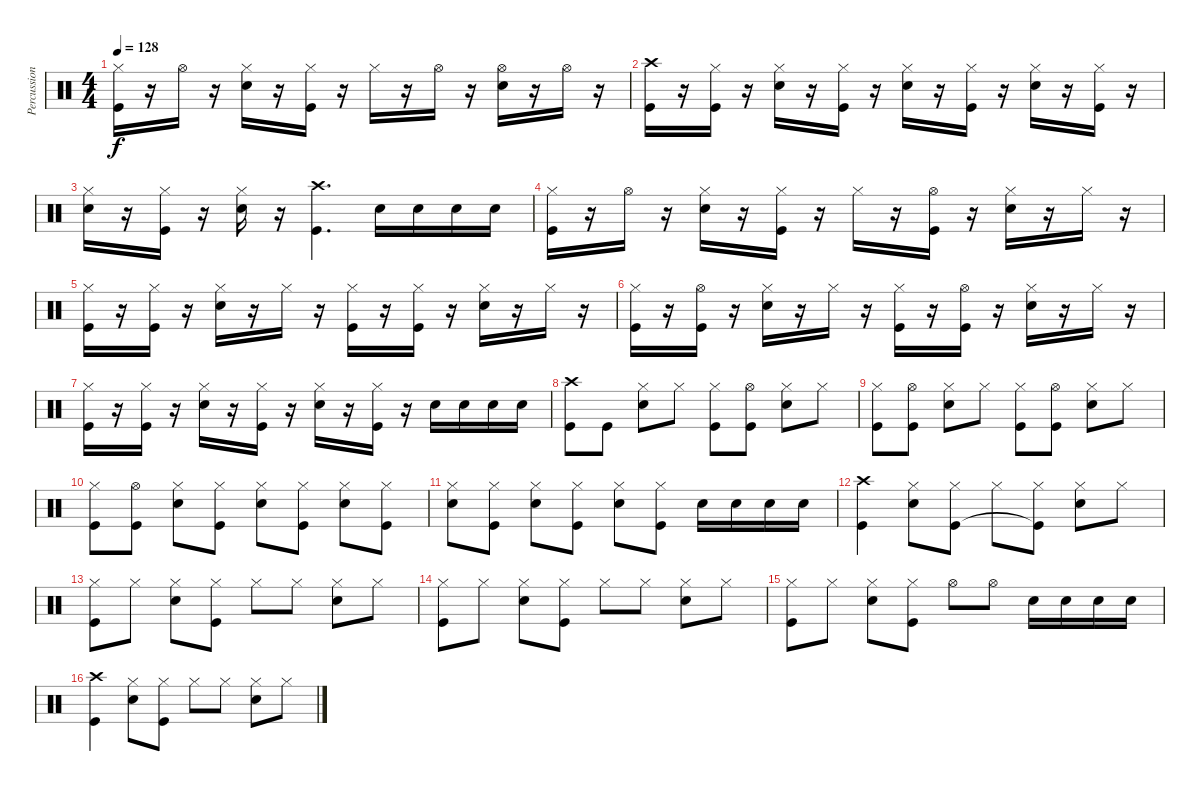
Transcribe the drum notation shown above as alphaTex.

\track ("Percussion" "Percussion") {instrument percussion}
\staff {score}
\articulation defaults
\ts (4 4)
\tempo 128
\clef neutral
\ks c
("Hi-Hat (closed)" "Kick (hit)").16{dy f} r.16 "Hi-Hat (open)".16 r.16 ("Hi-Hat (closed)" "Snare (hit) 2").16 r.16 ("Hi-Hat (closed)" "Kick (hit)").16 r.16 "Hi-Hat (closed)".16 r.16 "Hi-Hat (open)".16 r.16 ("Hi-Hat (open)" "Snare (hit) 2").16 r.16 "Hi-Hat (open)".16 r.16 |
("Crash high (hit)" "Kick (hit)").16 r.16 ("Hi-Hat (closed)" "Kick (hit)").16 r.16 ("Hi-Hat (closed)" "Snare (hit) 2").16 r.16 ("Hi-Hat (closed)" "Kick (hit)").16 r.16 ("Hi-Hat (closed)" "Snare (hit) 2").16 r.16 ("Hi-Hat (closed)" "Kick (hit)").16 r.16 ("Hi-Hat (closed)" "Snare (hit) 2").16 r.16 ("Hi-Hat (closed)" "Kick (hit)").16 r.16 |
("Hi-Hat (closed)" "Snare (hit) 2").16 r.16 ("Hi-Hat (closed)" "Kick (hit)").16 r.16 ("Hi-Hat (closed)" "Snare (hit) 2").16 r.16 ("Crash high (hit)" "Kick (hit)").4{d} "Snare (hit) 2".16 "Snare (hit) 2".16 "Snare (hit) 2".16 "Snare (hit) 2".16 |
("Hi-Hat (closed)" "Kick (hit)").16 r.16 "Hi-Hat (open)".16 r.16 ("Hi-Hat (closed)" "Snare (hit) 2").16 r.16 ("Hi-Hat (closed)" "Kick (hit)").16 r.16 "Hi-Hat (closed)".16 r.16 ("Hi-Hat (open)" "Kick (hit)").16 r.16 ("Hi-Hat (closed)" "Snare (hit) 2").16 r.16 "Hi-Hat (closed)".16 r.16 |
("Hi-Hat (closed)" "Kick (hit)").16 r.16 ("Hi-Hat (closed)" "Kick (hit)").16 r.16 ("Hi-Hat (closed)" "Snare (hit) 2").16 r.16 "Hi-Hat (closed)".16 r.16 ("Hi-Hat (closed)" "Kick (hit)").16 r.16 ("Hi-Hat (closed)" "Kick (hit)").16 r.16 ("Hi-Hat (closed)" "Snare (hit) 2").16 r.16 "Hi-Hat (closed)".16 r.16 |
("Hi-Hat (closed)" "Kick (hit)").16 r.16 ("Hi-Hat (open)" "Kick (hit)").16 r.16 ("Hi-Hat (closed)" "Snare (hit) 2").16 r.16 "Hi-Hat (closed)".16 r.16 ("Hi-Hat (closed)" "Kick (hit)").16 r.16 ("Hi-Hat (open)" "Kick (hit)").16 r.16 ("Hi-Hat (closed)" "Snare (hit) 2").16 r.16 "Hi-Hat (closed)".16 r.16 |
("Hi-Hat (closed)" "Kick (hit)").16 r.16 ("Hi-Hat (closed)" "Kick (hit)").16 r.16 ("Hi-Hat (closed)" "Snare (hit) 2").16 r.16 ("Hi-Hat (closed)" "Kick (hit)").16 r.16 ("Hi-Hat (closed)" "Snare (hit) 2").16 r.16 ("Hi-Hat (closed)" "Kick (hit)").16 r.16 "Snare (hit) 2".16 "Snare (hit) 2".16 "Snare (hit) 2".16 "Snare (hit) 2".16 |
("Crash high (hit)" "Kick (hit)").8 "Kick (hit)".8 ("Hi-Hat (closed)" "Snare (hit) 2").8 "Hi-Hat (closed)".8 ("Hi-Hat (closed)" "Kick (hit)").8 ("Hi-Hat (open)" "Kick (hit)").8 ("Hi-Hat (closed)" "Snare (hit) 2").8 "Hi-Hat (closed)".8 |
("Hi-Hat (closed)" "Kick (hit)").8 ("Hi-Hat (open)" "Kick (hit)").8 ("Hi-Hat (closed)" "Snare (hit) 2").8 "Hi-Hat (closed)".8 ("Hi-Hat (closed)" "Kick (hit)").8 ("Hi-Hat (open)" "Kick (hit)").8 ("Hi-Hat (closed)" "Snare (hit) 2").8 "Hi-Hat (closed)".8 |
("Hi-Hat (closed)" "Kick (hit)").8 ("Hi-Hat (open)" "Kick (hit)").8 ("Hi-Hat (closed)" "Snare (hit) 2").8 ("Hi-Hat (closed)" "Kick (hit)").8 ("Hi-Hat (closed)" "Snare (hit) 2").8 ("Hi-Hat (closed)" "Kick (hit)").8 ("Hi-Hat (closed)" "Snare (hit) 2").8 ("Hi-Hat (closed)" "Kick (hit)").8 |
("Hi-Hat (closed)" "Snare (hit) 2").8 ("Hi-Hat (closed)" "Kick (hit)").8 ("Hi-Hat (closed)" "Snare (hit) 2").8 ("Hi-Hat (closed)" "Kick (hit)").8 ("Hi-Hat (closed)" "Snare (hit) 2").8 ("Hi-Hat (closed)" "Kick (hit)").8 "Snare (hit) 2".16 "Snare (hit) 2".16 "Snare (hit) 2".16 "Snare (hit) 2".16 |
("Crash high (hit)" "Kick (hit)").4 ("Hi-Hat (closed)" "Snare (hit) 2").8 ("Hi-Hat (closed)" "Kick (hit)").8 "Hi-Hat (closed)".8 ("Hi-Hat (closed)" "Kick (hit)"{t}).8 ("Hi-Hat (closed)" "Snare (hit) 2").8 "Hi-Hat (closed)".8 |
("Hi-Hat (closed)" "Kick (hit)").8 "Hi-Hat (closed)".8 ("Hi-Hat (closed)" "Snare (hit) 2").8 ("Hi-Hat (closed)" "Kick (hit)").8 "Hi-Hat (closed)".8 "Hi-Hat (closed)".8 ("Hi-Hat (closed)" "Snare (hit) 2").8 "Hi-Hat (closed)".8 |
("Hi-Hat (closed)" "Kick (hit)").8 "Hi-Hat (closed)".8 ("Hi-Hat (closed)" "Snare (hit) 2").8 ("Hi-Hat (closed)" "Kick (hit)").8 "Hi-Hat (closed)".8 "Hi-Hat (closed)".8 ("Hi-Hat (closed)" "Snare (hit) 2").8 "Hi-Hat (closed)".8 |
("Hi-Hat (closed)" "Kick (hit)").8 "Hi-Hat (closed)".8 ("Hi-Hat (closed)" "Snare (hit) 2").8 ("Hi-Hat (closed)" "Kick (hit)").8 "Hi-Hat (open)".8 "Hi-Hat (open)".8 "Snare (hit) 2".16 "Snare (hit) 2".16 "Snare (hit) 2".16 "Snare (hit) 2".16 |
("Crash high (hit)" "Kick (hit)").4 ("Hi-Hat (closed)" "Snare (hit) 2").8 ("Hi-Hat (closed)" "Kick (hit)").8 "Hi-Hat (closed)".8 "Hi-Hat (closed)".8 ("Hi-Hat (closed)" "Snare (hit) 2").8 "Hi-Hat (closed)".8
